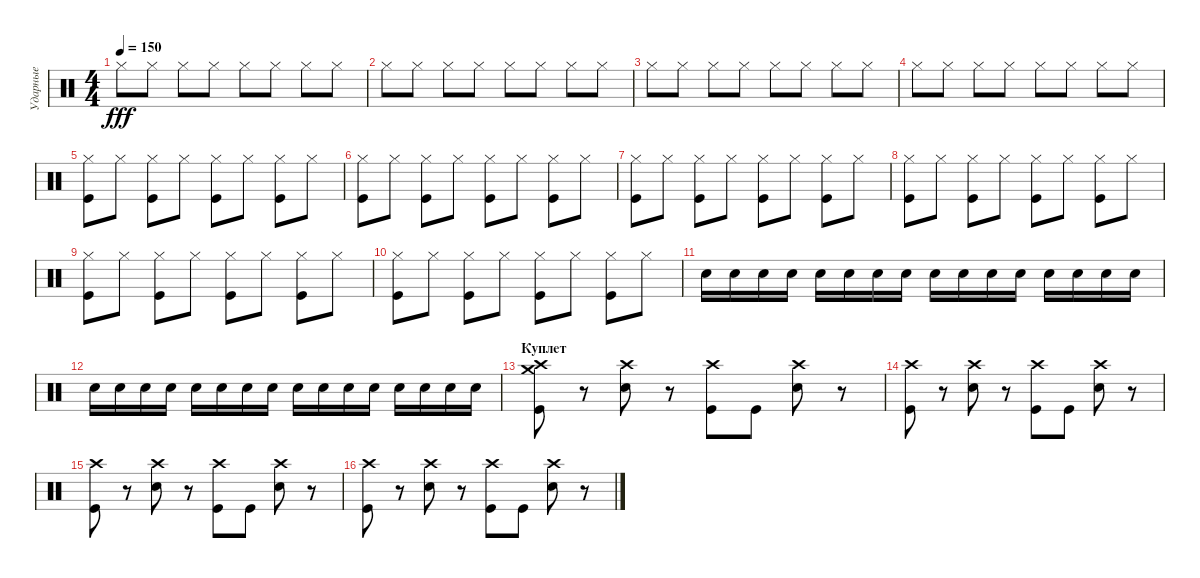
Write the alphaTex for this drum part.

\track ("Ударные" "Ударные") {instrument percussion}
\staff {score}
\articulation defaults
\ts (4 4)
\tempo 150
\clef neutral
\ks c "Hi-Hat (closed)".8{dy fff} "Hi-Hat (closed)".8 "Hi-Hat (closed)".8 "Hi-Hat (closed)".8 "Hi-Hat (closed)".8 "Hi-Hat (closed)".8 "Hi-Hat (closed)".8 "Hi-Hat (closed)".8
|
"Hi-Hat (closed)".8 "Hi-Hat (closed)".8 "Hi-Hat (closed)".8 "Hi-Hat (closed)".8 "Hi-Hat (closed)".8 "Hi-Hat (closed)".8 "Hi-Hat (closed)".8 "Hi-Hat (closed)".8 |
"Hi-Hat (closed)".8 "Hi-Hat (closed)".8 "Hi-Hat (closed)".8 "Hi-Hat (closed)".8 "Hi-Hat (closed)".8 "Hi-Hat (closed)".8 "Hi-Hat (closed)".8 "Hi-Hat (closed)".8 |
"Hi-Hat (closed)".8 "Hi-Hat (closed)".8 "Hi-Hat (closed)".8 "Hi-Hat (closed)".8 "Hi-Hat (closed)".8 "Hi-Hat (closed)".8 "Hi-Hat (closed)".8 "Hi-Hat (closed)".8 |
("Hi-Hat (closed)" "Kick (hit)").8 "Hi-Hat (closed)".8 ("Hi-Hat (closed)" "Kick (hit)").8 "Hi-Hat (closed)".8 ("Hi-Hat (closed)" "Kick (hit)").8 "Hi-Hat (closed)".8 ("Hi-Hat (closed)" "Kick (hit)").8 "Hi-Hat (closed)".8 |
("Hi-Hat (closed)" "Kick (hit)").8 "Hi-Hat (closed)".8 ("Hi-Hat (closed)" "Kick (hit)").8 "Hi-Hat (closed)".8 ("Hi-Hat (closed)" "Kick (hit)").8 "Hi-Hat (closed)".8 ("Hi-Hat (closed)" "Kick (hit)").8 "Hi-Hat (closed)".8 |
("Hi-Hat (closed)" "Kick (hit)").8 "Hi-Hat (closed)".8 ("Hi-Hat (closed)" "Kick (hit)").8 "Hi-Hat (closed)".8 ("Hi-Hat (closed)" "Kick (hit)").8 "Hi-Hat (closed)".8 ("Hi-Hat (closed)" "Kick (hit)").8 "Hi-Hat (closed)".8 |
("Hi-Hat (closed)" "Kick (hit)").8 "Hi-Hat (closed)".8 ("Hi-Hat (closed)" "Kick (hit)").8 "Hi-Hat (closed)".8 ("Hi-Hat (closed)" "Kick (hit)").8 "Hi-Hat (closed)".8 ("Hi-Hat (closed)" "Kick (hit)").8 "Hi-Hat (closed)".8 |
("Hi-Hat (closed)" "Kick (hit)").8 "Hi-Hat (closed)".8 ("Hi-Hat (closed)" "Kick (hit)").8 "Hi-Hat (closed)".8 ("Hi-Hat (closed)" "Kick (hit)").8 "Hi-Hat (closed)".8 ("Hi-Hat (closed)" "Kick (hit)").8 "Hi-Hat (closed)".8 |
("Hi-Hat (closed)" "Kick (hit)").8 "Hi-Hat (closed)".8 ("Hi-Hat (closed)" "Kick (hit)").8 "Hi-Hat (closed)".8 ("Hi-Hat (closed)" "Kick (hit)").8 "Hi-Hat (closed)".8 ("Hi-Hat (closed)" "Kick (hit)").8 "Hi-Hat (closed)".8 |
"Electric Snare (hit)".16 "Electric Snare (hit)".16 "Electric Snare (hit)".16 "Electric Snare (hit)".16 "Electric Snare (hit)".16 "Electric Snare (hit)".16 "Electric Snare (hit)".16 "Electric Snare (hit)".16 "Electric Snare (hit)".16 "Electric Snare (hit)".16 "Electric Snare (hit)".16 "Electric Snare (hit)".16 "Electric Snare (hit)".16 "Electric Snare (hit)".16 "Electric Snare (hit)".16 "Electric Snare (hit)".16 |
"Electric Snare (hit)".16 "Electric Snare (hit)".16 "Electric Snare (hit)".16 "Electric Snare (hit)".16 "Electric Snare (hit)".16 "Electric Snare (hit)".16 "Electric Snare (hit)".16 "Electric Snare (hit)".16 "Electric Snare (hit)".16 "Electric Snare (hit)".16 "Electric Snare (hit)".16 "Electric Snare (hit)".16 "Electric Snare (hit)".16 "Electric Snare (hit)".16 "Electric Snare (hit)".16 "Electric Snare (hit)".16 |
\section ("" "Куплет")
("Crash medium (hit)" "Crash high (hit)" "Kick (hit)").8 r.8 ("Crash high (hit)" "Electric Snare (hit)").8 r.8 ("Crash high (hit)" "Kick (hit)").8 "Kick (hit)".8 ("Crash high (hit)" "Electric Snare (hit)").8 r.8 |
("Crash high (hit)" "Kick (hit)").8 r.8 ("Crash high (hit)" "Electric Snare (hit)").8 r.8 ("Crash high (hit)" "Kick (hit)").8 "Kick (hit)".8 ("Crash high (hit)" "Electric Snare (hit)").8 r.8 |
("Crash high (hit)" "Kick (hit)").8 r.8 ("Crash high (hit)" "Electric Snare (hit)").8 r.8 ("Crash high (hit)" "Kick (hit)").8 "Kick (hit)".8 ("Crash high (hit)" "Electric Snare (hit)").8 r.8 |
("Crash high (hit)" "Kick (hit)").8 r.8 ("Crash high (hit)" "Electric Snare (hit)").8 r.8 ("Crash high (hit)" "Kick (hit)").8 "Kick (hit)".8 ("Crash high (hit)" "Electric Snare (hit)").8 r.8
